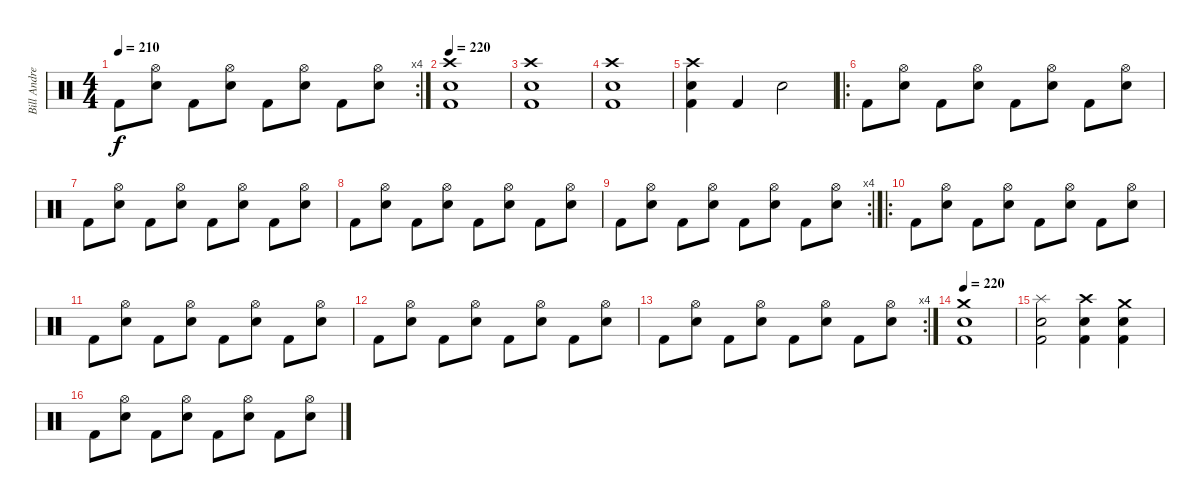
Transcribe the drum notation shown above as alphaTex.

\track ("Bill Andrews" "Bill Andre") {instrument percussion}
\staff {score}
\articulation defaults
\rc 4
\ts (4 4)
\tempo 210
\clef neutral
\ks c "Kick (hit) 2".8{dy f}
("Hi-Hat (open)" "Snare (hit) 2").8 "Kick (hit) 2".8 ("Hi-Hat (open)" "Snare (hit) 2").8 "Kick (hit) 2".8 ("Hi-Hat (open)" "Snare (hit) 2").8 "Kick (hit) 2".8 ("Hi-Hat (open)" "Snare (hit) 2").8 |
\tempo 220
("Crash high (hit)" "Snare (hit) 2" "Kick (hit) 2").1 |
("Crash high (hit)" "Snare (hit) 2" "Kick (hit) 2").1 |
("Crash high (hit)" "Snare (hit) 2" "Kick (hit) 2").1 |
("Crash high (hit)" "Snare (hit) 2" "Kick (hit) 2").4 "Kick (hit) 2".4 "Snare (hit) 2".2 |
\ro "Kick (hit) 2".8
("Hi-Hat (open)" "Snare (hit) 2").8 "Kick (hit) 2".8 ("Hi-Hat (open)" "Snare (hit) 2").8 "Kick (hit) 2".8 ("Hi-Hat (open)" "Snare (hit) 2").8 "Kick (hit) 2".8 ("Hi-Hat (open)" "Snare (hit) 2").8 |
"Kick (hit) 2".8 ("Hi-Hat (open)" "Snare (hit) 2").8 "Kick (hit) 2".8 ("Hi-Hat (open)" "Snare (hit) 2").8 "Kick (hit) 2".8 ("Hi-Hat (open)" "Snare (hit) 2").8 "Kick (hit) 2".8 ("Hi-Hat (open)" "Snare (hit) 2").8 |
"Kick (hit) 2".8 ("Hi-Hat (open)" "Snare (hit) 2").8 "Kick (hit) 2".8 ("Hi-Hat (open)" "Snare (hit) 2").8 "Kick (hit) 2".8 ("Hi-Hat (open)" "Snare (hit) 2").8 "Kick (hit) 2".8 ("Hi-Hat (open)" "Snare (hit) 2").8 |
\rc 4 "Kick (hit) 2".8
("Hi-Hat (open)" "Snare (hit) 2").8 "Kick (hit) 2".8 ("Hi-Hat (open)" "Snare (hit) 2").8 "Kick (hit) 2".8 ("Hi-Hat (open)" "Snare (hit) 2").8 "Kick (hit) 2".8 ("Hi-Hat (open)" "Snare (hit) 2").8 |
\ro "Kick (hit) 2".8
("Hi-Hat (open)" "Snare (hit) 2").8 "Kick (hit) 2".8 ("Hi-Hat (open)" "Snare (hit) 2").8 "Kick (hit) 2".8 ("Hi-Hat (open)" "Snare (hit) 2").8 "Kick (hit) 2".8 ("Hi-Hat (open)" "Snare (hit) 2").8 |
"Kick (hit) 2".8 ("Hi-Hat (open)" "Snare (hit) 2").8 "Kick (hit) 2".8 ("Hi-Hat (open)" "Snare (hit) 2").8 "Kick (hit) 2".8 ("Hi-Hat (open)" "Snare (hit) 2").8 "Kick (hit) 2".8 ("Hi-Hat (open)" "Snare (hit) 2").8 |
"Kick (hit) 2".8 ("Hi-Hat (open)" "Snare (hit) 2").8 "Kick (hit) 2".8 ("Hi-Hat (open)" "Snare (hit) 2").8 "Kick (hit) 2".8 ("Hi-Hat (open)" "Snare (hit) 2").8 "Kick (hit) 2".8 ("Hi-Hat (open)" "Snare (hit) 2").8 |
\rc 4 "Kick (hit) 2".8
("Hi-Hat (open)" "Snare (hit) 2").8 "Kick (hit) 2".8 ("Hi-Hat (open)" "Snare (hit) 2").8 "Kick (hit) 2".8 ("Hi-Hat (open)" "Snare (hit) 2").8 "Kick (hit) 2".8 ("Hi-Hat (open)" "Snare (hit) 2").8 |
\tempo 220
("Crash medium (hit)" "Snare (hit) 2" "Kick (hit) 2").1 |
("Splash (hit)" "Snare (hit) 2" "Kick (hit) 2").2 ("Crash high (hit)" "Snare (hit) 2" "Kick (hit) 2").4 ("Crash medium (hit)" "Snare (hit) 2" "Kick (hit) 2").4 |
"Kick (hit) 2".8 ("Hi-Hat (open)" "Snare (hit) 2").8 "Kick (hit) 2".8 ("Hi-Hat (open)" "Snare (hit) 2").8 "Kick (hit) 2".8 ("Hi-Hat (open)" "Snare (hit) 2").8 "Kick (hit) 2".8 ("Hi-Hat (open)" "Snare (hit) 2").8
